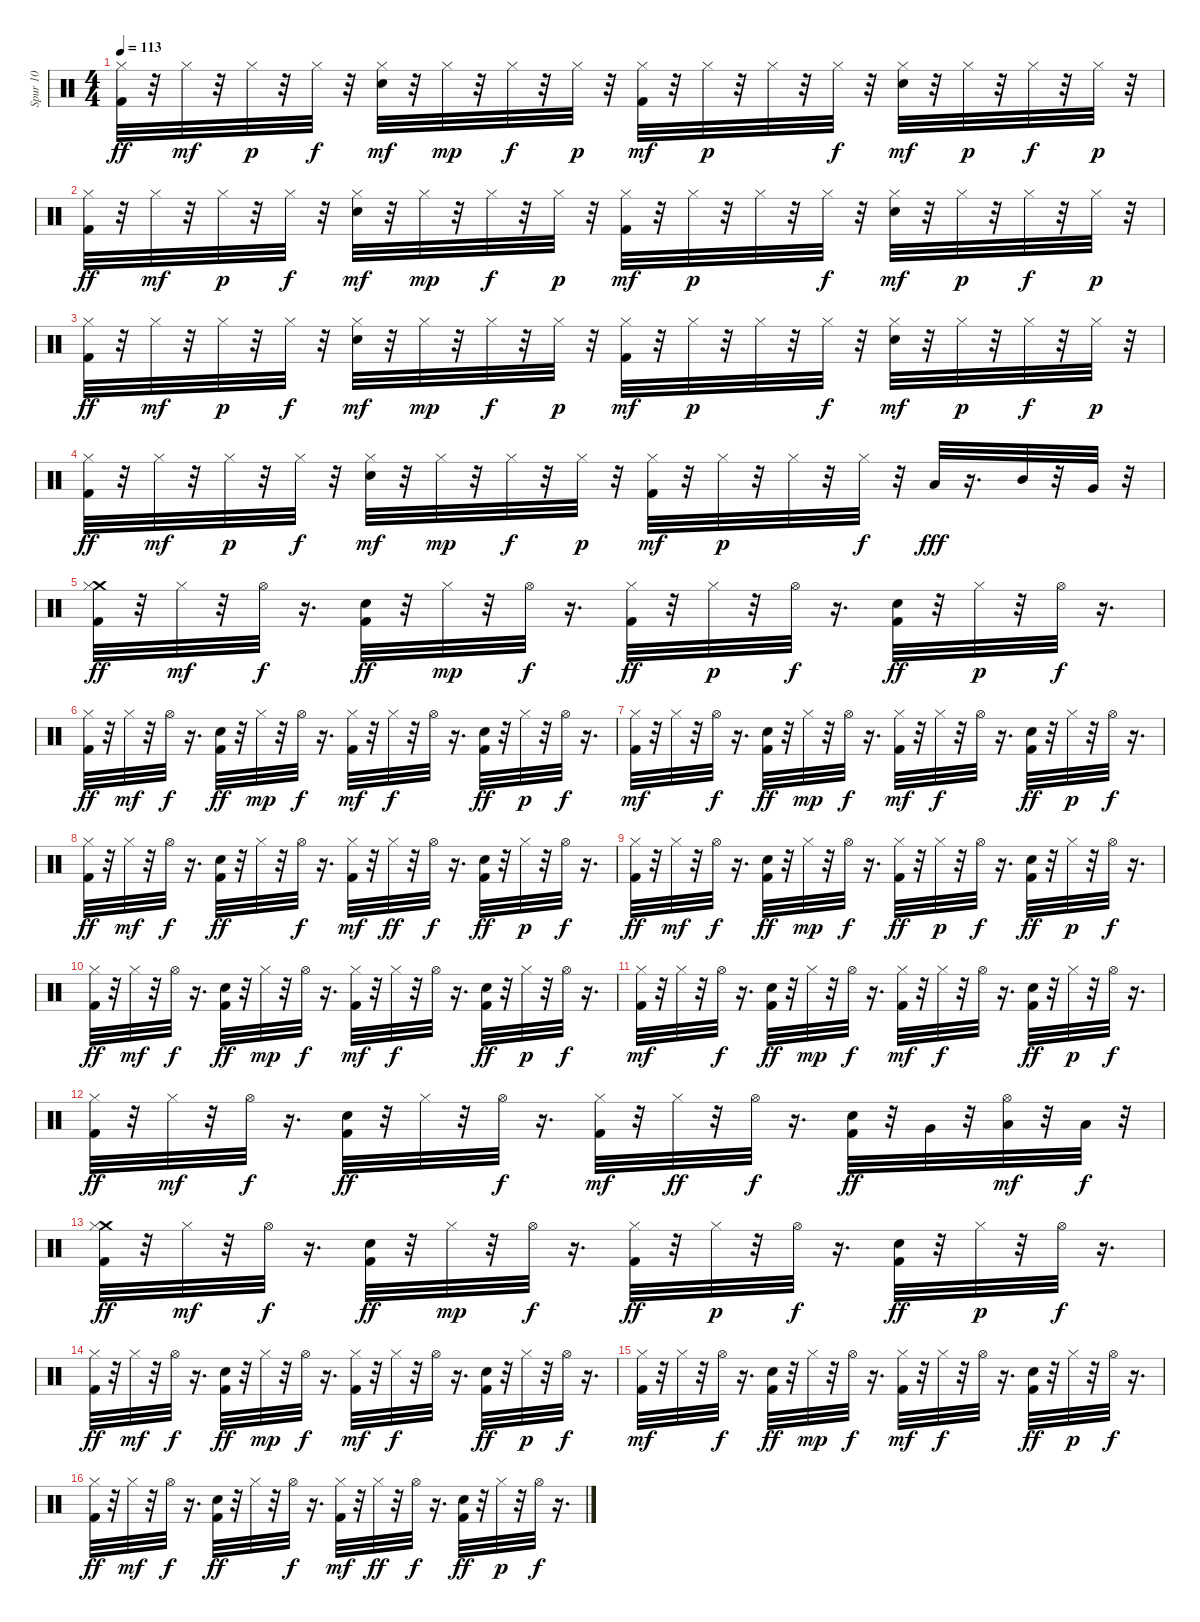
\track ("Spur 10" "Spur 10") {instrument percussion}
\staff {score}
\articulation defaults
\ts (4 4)
\tempo 113
\clef neutral
\ks c
("Kick (hit) 2" "Hi-Hat (closed)").32{dy ff} r.32 "Hi-Hat (closed)".32{dy mf} r.32 "Hi-Hat (closed)".32{dy p} r.32 "Hi-Hat (closed)".32{dy f} r.32 ("Snare (hit) 2" "Hi-Hat (closed)").32{dy mf} r.32 "Hi-Hat (closed)".32{dy mp} r.32 "Hi-Hat (closed)".32{dy f} r.32 "Hi-Hat (closed)".32{dy p} r.32 ("Kick (hit) 2" "Hi-Hat (closed)").32{dy mf} r.32 "Hi-Hat (closed)".32{dy p} r.32 "Hi-Hat (closed)".32 r.32 "Hi-Hat (closed)".32{dy f} r.32 ("Snare (hit) 2" "Hi-Hat (closed)").32{dy mf} r.32 "Hi-Hat (closed)".32{dy p} r.32 "Hi-Hat (closed)".32{dy f} r.32 "Hi-Hat (closed)".32{dy p} r.32 |
("Kick (hit) 2" "Hi-Hat (closed)").32{dy ff} r.32 "Hi-Hat (closed)".32{dy mf} r.32 "Hi-Hat (closed)".32{dy p} r.32 "Hi-Hat (closed)".32{dy f} r.32 ("Snare (hit) 2" "Hi-Hat (closed)").32{dy mf} r.32 "Hi-Hat (closed)".32{dy mp} r.32 "Hi-Hat (closed)".32{dy f} r.32 "Hi-Hat (closed)".32{dy p} r.32 ("Kick (hit) 2" "Hi-Hat (closed)").32{dy mf} r.32 "Hi-Hat (closed)".32{dy p} r.32 "Hi-Hat (closed)".32 r.32 "Hi-Hat (closed)".32{dy f} r.32 ("Snare (hit) 2" "Hi-Hat (closed)").32{dy mf} r.32 "Hi-Hat (closed)".32{dy p} r.32 "Hi-Hat (closed)".32{dy f} r.32 "Hi-Hat (closed)".32{dy p} r.32 |
("Kick (hit) 2" "Hi-Hat (closed)").32{dy ff} r.32 "Hi-Hat (closed)".32{dy mf} r.32 "Hi-Hat (closed)".32{dy p} r.32 "Hi-Hat (closed)".32{dy f} r.32 ("Snare (hit) 2" "Hi-Hat (closed)").32{dy mf} r.32 "Hi-Hat (closed)".32{dy mp} r.32 "Hi-Hat (closed)".32{dy f} r.32 "Hi-Hat (closed)".32{dy p} r.32 ("Kick (hit) 2" "Hi-Hat (closed)").32{dy mf} r.32 "Hi-Hat (closed)".32{dy p} r.32 "Hi-Hat (closed)".32 r.32 "Hi-Hat (closed)".32{dy f} r.32 ("Snare (hit) 2" "Hi-Hat (closed)").32{dy mf} r.32 "Hi-Hat (closed)".32{dy p} r.32 "Hi-Hat (closed)".32{dy f} r.32 "Hi-Hat (closed)".32{dy p} r.32 |
("Kick (hit) 2" "Hi-Hat (closed)").32{dy ff} r.32 "Hi-Hat (closed)".32{dy mf} r.32 "Hi-Hat (closed)".32{dy p} r.32 "Hi-Hat (closed)".32{dy f} r.32 ("Snare (hit) 2" "Hi-Hat (closed)").32{dy mf} r.32 "Hi-Hat (closed)".32{dy mp} r.32 "Hi-Hat (closed)".32{dy f} r.32 "Hi-Hat (closed)".32{dy p} r.32 ("Kick (hit) 2" "Hi-Hat (closed)").32{dy mf} r.32 "Hi-Hat (closed)".32{dy p} r.32 "Hi-Hat (closed)".32 r.32 "Hi-Hat (closed)".32{dy f} r.32 "Low Tom (hit)".32{dy fff} r.16{d} "Mid Tom (hit)".32 r.32 "Very Low Tom (hit)".32 r.32 |
("Crash medium (hit)" "Kick (hit) 2" "Hi-Hat (closed)").32{dy ff} r.32 "Hi-Hat (closed)".32{dy mf} r.32 "Hi-Hat (open)".32{dy f} r.16{d} ("Kick (hit) 2" "Snare (hit) 2").32{dy ff} r.32 "Hi-Hat (closed)".32{dy mp} r.32 "Hi-Hat (open)".32{dy f} r.16{d} ("Kick (hit) 2" "Hi-Hat (closed)").32{dy ff} r.32 "Hi-Hat (closed)".32{dy p} r.32 "Hi-Hat (open)".32{dy f} r.16{d} ("Kick (hit) 2" "Snare (hit) 2").32{dy ff} r.32 "Hi-Hat (closed)".32{dy p} r.32 "Hi-Hat (open)".32{dy f} r.16{d} |
("Kick (hit) 2" "Hi-Hat (closed)").32{dy ff} r.32 "Hi-Hat (closed)".32{dy mf} r.32 "Hi-Hat (open)".32{dy f} r.16{d} ("Kick (hit) 2" "Snare (hit) 2").32{dy ff} r.32 "Hi-Hat (closed)".32{dy mp} r.32 "Hi-Hat (open)".32{dy f} r.16{d} ("Kick (hit) 2" "Hi-Hat (closed)").32{dy mf} r.32 "Hi-Hat (closed)".32{dy f} r.32 "Hi-Hat (open)".32 r.16{d} ("Kick (hit) 2" "Snare (hit) 2").32{dy ff} r.32 "Hi-Hat (closed)".32{dy p} r.32 "Hi-Hat (open)".32{dy f} r.16{d} |
("Kick (hit) 2" "Hi-Hat (closed)").32{dy mf} r.32 "Hi-Hat (closed)".32 r.32 "Hi-Hat (open)".32{dy f} r.16{d} ("Kick (hit) 2" "Snare (hit) 2").32{dy ff} r.32 "Hi-Hat (closed)".32{dy mp} r.32 "Hi-Hat (open)".32{dy f} r.16{d} ("Kick (hit) 2" "Hi-Hat (closed)").32{dy mf} r.32 "Hi-Hat (closed)".32{dy f} r.32 "Hi-Hat (open)".32 r.16{d} ("Kick (hit) 2" "Snare (hit) 2").32{dy ff} r.32 "Hi-Hat (closed)".32{dy p} r.32 "Hi-Hat (open)".32{dy f} r.16{d} |
("Kick (hit) 2" "Hi-Hat (closed)").32{dy ff} r.32 "Hi-Hat (closed)".32{dy mf} r.32 "Hi-Hat (open)".32{dy f} r.16{d} ("Kick (hit) 2" "Snare (hit) 2").32{dy ff} r.32 "Hi-Hat (closed)".32 r.32 "Hi-Hat (open)".32{dy f} r.16{d} ("Kick (hit) 2" "Hi-Hat (closed)").32{dy mf} r.32 "Hi-Hat (closed)".32{dy ff} r.32 "Hi-Hat (open)".32{dy f} r.16{d} ("Kick (hit) 2" "Snare (hit) 2").32{dy ff} r.32 "Hi-Hat (closed)".32{dy p} r.32 "Hi-Hat (open)".32{dy f} r.16{d} |
("Kick (hit) 2" "Hi-Hat (closed)").32{dy ff} r.32 "Hi-Hat (closed)".32{dy mf} r.32 "Hi-Hat (open)".32{dy f} r.16{d} ("Kick (hit) 2" "Snare (hit) 2").32{dy ff} r.32 "Hi-Hat (closed)".32{dy mp} r.32 "Hi-Hat (open)".32{dy f} r.16{d} ("Kick (hit) 2" "Hi-Hat (closed)").32{dy ff} r.32 "Hi-Hat (closed)".32{dy p} r.32 "Hi-Hat (open)".32{dy f} r.16{d} ("Kick (hit) 2" "Snare (hit) 2").32{dy ff} r.32 "Hi-Hat (closed)".32{dy p} r.32 "Hi-Hat (open)".32{dy f} r.16{d} |
("Kick (hit) 2" "Hi-Hat (closed)").32{dy ff} r.32 "Hi-Hat (closed)".32{dy mf} r.32 "Hi-Hat (open)".32{dy f} r.16{d} ("Kick (hit) 2" "Snare (hit) 2").32{dy ff} r.32 "Hi-Hat (closed)".32{dy mp} r.32 "Hi-Hat (open)".32{dy f} r.16{d} ("Kick (hit) 2" "Hi-Hat (closed)").32{dy mf} r.32 "Hi-Hat (closed)".32{dy f} r.32 "Hi-Hat (open)".32 r.16{d} ("Kick (hit) 2" "Snare (hit) 2").32{dy ff} r.32 "Hi-Hat (closed)".32{dy p} r.32 "Hi-Hat (open)".32{dy f} r.16{d} |
("Kick (hit) 2" "Hi-Hat (closed)").32{dy mf} r.32 "Hi-Hat (closed)".32 r.32 "Hi-Hat (open)".32{dy f} r.16{d} ("Kick (hit) 2" "Snare (hit) 2").32{dy ff} r.32 "Hi-Hat (closed)".32{dy mp} r.32 "Hi-Hat (open)".32{dy f} r.16{d} ("Kick (hit) 2" "Hi-Hat (closed)").32{dy mf} r.32 "Hi-Hat (closed)".32{dy f} r.32 "Hi-Hat (open)".32 r.16{d} ("Kick (hit) 2" "Snare (hit) 2").32{dy ff} r.32 "Hi-Hat (closed)".32{dy p} r.32 "Hi-Hat (open)".32{dy f} r.16{d} |
("Kick (hit) 2" "Hi-Hat (closed)").32{dy ff} r.32 "Hi-Hat (closed)".32{dy mf} r.32 "Hi-Hat (open)".32{dy f} r.16{d} ("Kick (hit) 2" "Snare (hit) 2").32{dy ff} r.32 "Hi-Hat (closed)".32 r.32 "Hi-Hat (open)".32{dy f} r.16{d} ("Kick (hit) 2" "Hi-Hat (closed)").32{dy mf} r.32 "Hi-Hat (closed)".32{dy ff} r.32 "Hi-Hat (open)".32{dy f} r.16{d} ("Kick (hit) 2" "Snare (hit) 2").32{dy ff} r.32 "Very Low Tom (hit)".32 r.32 ("Low Floor Tom (hit)" "Hi-Hat (open)").32{dy mf} r.32 "Low Floor Tom (hit)".32{dy f} r.32 |
("Crash medium (hit)" "Kick (hit) 2" "Hi-Hat (closed)").32{dy ff} r.32 "Hi-Hat (closed)".32{dy mf} r.32 "Hi-Hat (open)".32{dy f} r.16{d} ("Kick (hit) 2" "Snare (hit) 2").32{dy ff} r.32 "Hi-Hat (closed)".32{dy mp} r.32 "Hi-Hat (open)".32{dy f} r.16{d} ("Kick (hit) 2" "Hi-Hat (closed)").32{dy ff} r.32 "Hi-Hat (closed)".32{dy p} r.32 "Hi-Hat (open)".32{dy f} r.16{d} ("Kick (hit) 2" "Snare (hit) 2").32{dy ff} r.32 "Hi-Hat (closed)".32{dy p} r.32 "Hi-Hat (open)".32{dy f} r.16{d} |
("Kick (hit) 2" "Hi-Hat (closed)").32{dy ff} r.32 "Hi-Hat (closed)".32{dy mf} r.32 "Hi-Hat (open)".32{dy f} r.16{d} ("Kick (hit) 2" "Snare (hit) 2").32{dy ff} r.32 "Hi-Hat (closed)".32{dy mp} r.32 "Hi-Hat (open)".32{dy f} r.16{d} ("Kick (hit) 2" "Hi-Hat (closed)").32{dy mf} r.32 "Hi-Hat (closed)".32{dy f} r.32 "Hi-Hat (open)".32 r.16{d} ("Kick (hit) 2" "Snare (hit) 2").32{dy ff} r.32 "Hi-Hat (closed)".32{dy p} r.32 "Hi-Hat (open)".32{dy f} r.16{d} |
("Kick (hit) 2" "Hi-Hat (closed)").32{dy mf} r.32 "Hi-Hat (closed)".32 r.32 "Hi-Hat (open)".32{dy f} r.16{d} ("Kick (hit) 2" "Snare (hit) 2").32{dy ff} r.32 "Hi-Hat (closed)".32{dy mp} r.32 "Hi-Hat (open)".32{dy f} r.16{d} ("Kick (hit) 2" "Hi-Hat (closed)").32{dy mf} r.32 "Hi-Hat (closed)".32{dy f} r.32 "Hi-Hat (open)".32 r.16{d} ("Kick (hit) 2" "Snare (hit) 2").32{dy ff} r.32 "Hi-Hat (closed)".32{dy p} r.32 "Hi-Hat (open)".32{dy f} r.16{d} |
("Kick (hit) 2" "Hi-Hat (closed)").32{dy ff} r.32 "Hi-Hat (closed)".32{dy mf} r.32 "Hi-Hat (open)".32{dy f} r.16{d} ("Kick (hit) 2" "Snare (hit) 2").32{dy ff} r.32 "Hi-Hat (closed)".32 r.32 "Hi-Hat (open)".32{dy f} r.16{d} ("Kick (hit) 2" "Hi-Hat (closed)").32{dy mf} r.32 "Hi-Hat (closed)".32{dy ff} r.32 "Hi-Hat (open)".32{dy f} r.16{d} ("Kick (hit) 2" "Snare (hit) 2").32{dy ff} r.32 "Hi-Hat (closed)".32{dy p} r.32 "Hi-Hat (open)".32{dy f} r.16{d}
